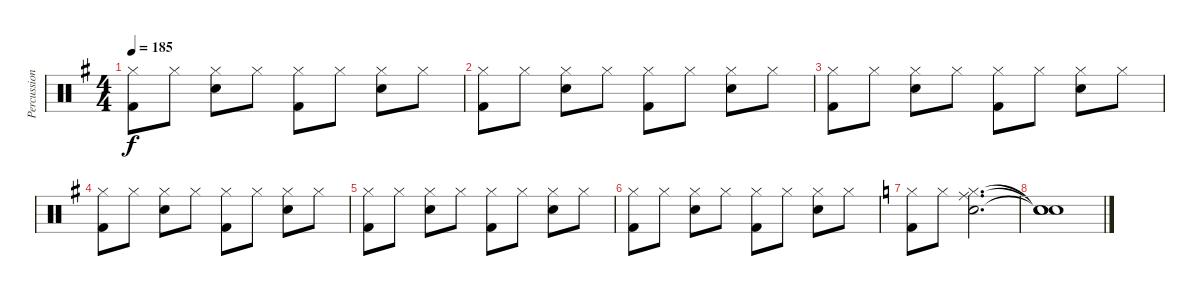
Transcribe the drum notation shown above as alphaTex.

\track ("Percussion" "Percussion") {instrument percussion}
\staff {score}
\articulation defaults
\ts (4 4)
\tempo 185
\clef neutral
\ks g
("Hi-Hat (closed)" "Kick (hit) 2").8{dy f} "Hi-Hat (closed)".8 ("Hi-Hat (closed)" "Snare (hit) 2").8 "Hi-Hat (closed)".8 ("Hi-Hat (closed)" "Kick (hit) 2").8 "Hi-Hat (closed)".8 ("Hi-Hat (closed)" "Snare (hit) 2").8 "Hi-Hat (closed)".8 |
("Hi-Hat (closed)" "Kick (hit) 2").8 "Hi-Hat (closed)".8 ("Hi-Hat (closed)" "Snare (hit) 2").8 "Hi-Hat (closed)".8 ("Hi-Hat (closed)" "Kick (hit) 2").8 "Hi-Hat (closed)".8 ("Hi-Hat (closed)" "Snare (hit) 2").8 "Hi-Hat (closed)".8 |
("Hi-Hat (closed)" "Kick (hit) 2").8 "Hi-Hat (closed)".8 ("Hi-Hat (closed)" "Snare (hit) 2").8 "Hi-Hat (closed)".8 ("Hi-Hat (closed)" "Kick (hit) 2").8 "Hi-Hat (closed)".8 ("Hi-Hat (closed)" "Snare (hit) 2").8 "Hi-Hat (closed)".8 |
("Hi-Hat (closed)" "Kick (hit) 2").8 "Hi-Hat (closed)".8 ("Hi-Hat (closed)" "Snare (hit) 2").8 "Hi-Hat (closed)".8 ("Hi-Hat (closed)" "Kick (hit) 2").8 "Hi-Hat (closed)".8 ("Hi-Hat (closed)" "Snare (hit) 2").8 "Hi-Hat (closed)".8 |
("Hi-Hat (closed)" "Kick (hit) 2").8 "Hi-Hat (closed)".8 ("Hi-Hat (closed)" "Snare (hit) 2").8 "Hi-Hat (closed)".8 ("Hi-Hat (closed)" "Kick (hit) 2").8 "Hi-Hat (closed)".8 ("Hi-Hat (closed)" "Snare (hit) 2").8 "Hi-Hat (closed)".8 |
("Hi-Hat (closed)" "Kick (hit) 2").8 "Hi-Hat (closed)".8 ("Hi-Hat (closed)" "Snare (hit) 2").8 "Hi-Hat (closed)".8 ("Hi-Hat (closed)" "Kick (hit) 2").8 "Hi-Hat (closed)".8 ("Hi-Hat (closed)" "Snare (hit) 2").8 "Hi-Hat (closed)".8 |
\ks c
("Hi-Hat (closed)" "Kick (hit) 2").8 "Hi-Hat (closed)".8 ("Ride (middle)" "Hi-Hat (closed)" "Snare (hit) 2").2{d} |
("Snare (hit)"{t} "Snare (hit)"{t} "Snare (hit)"{t}).1
